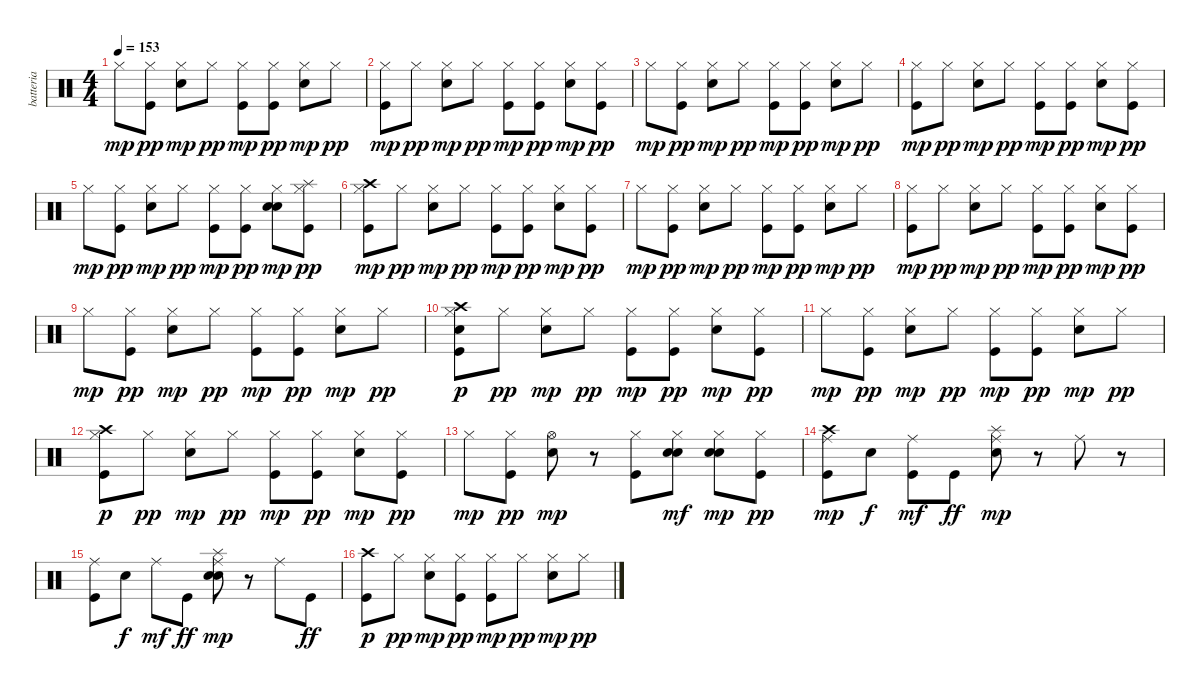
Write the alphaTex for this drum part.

\track ("batteria" "batteria") {instrument percussion}
\staff {score}
\articulation defaults
\ts (4 4)
\tempo 153
\clef neutral
\ks c "Hi-Hat (closed)".8{dy mp}
("Kick (hit)" "Hi-Hat (closed)").8{dy pp} ("Hi-Hat (closed)" "Electric Snare (hit)").8{dy mp} "Hi-Hat (closed)".8{dy pp} ("Kick (hit)" "Hi-Hat (closed)").8{dy mp} ("Kick (hit)" "Hi-Hat (closed)").8{dy pp} ("Hi-Hat (closed)" "Electric Snare (hit)").8{dy mp} "Hi-Hat (closed)".8{dy pp} |
("Kick (hit)" "Hi-Hat (closed)").8{dy mp} "Hi-Hat (closed)".8{dy pp} ("Hi-Hat (closed)" "Electric Snare (hit)").8{dy mp} "Hi-Hat (closed)".8{dy pp} ("Kick (hit)" "Hi-Hat (closed)").8{dy mp} ("Kick (hit)" "Hi-Hat (closed)").8{dy pp} ("Hi-Hat (closed)" "Electric Snare (hit)").8{dy mp} ("Kick (hit)" "Hi-Hat (closed)").8{dy pp} |
"Hi-Hat (closed)".8{dy mp} ("Kick (hit)" "Hi-Hat (closed)").8{dy pp} ("Hi-Hat (closed)" "Electric Snare (hit)").8{dy mp} "Hi-Hat (closed)".8{dy pp} ("Kick (hit)" "Hi-Hat (closed)").8{dy mp} ("Kick (hit)" "Hi-Hat (closed)").8{dy pp} ("Hi-Hat (closed)" "Electric Snare (hit)").8{dy mp} "Hi-Hat (closed)".8{dy pp} |
("Kick (hit)" "Hi-Hat (closed)").8{dy mp} "Hi-Hat (closed)".8{dy pp} ("Hi-Hat (closed)" "Electric Snare (hit)").8{dy mp} "Hi-Hat (closed)".8{dy pp} ("Kick (hit)" "Hi-Hat (closed)").8{dy mp} ("Kick (hit)" "Hi-Hat (closed)").8{dy pp} ("Hi-Hat (closed)" "Electric Snare (hit)").8{dy mp} ("Kick (hit)" "Hi-Hat (closed)").8{dy pp} |
"Hi-Hat (closed)".8{dy mp} ("Kick (hit)" "Hi-Hat (closed)").8{dy pp} ("Hi-Hat (closed)" "Electric Snare (hit)").8{dy mp} "Hi-Hat (closed)".8{dy pp} ("Kick (hit)" "Hi-Hat (closed)").8{dy mp} ("Kick (hit)" "Hi-Hat (closed)").8{dy pp} ("Electric Snare (hit)" "Hi-Hat (closed)" "Electric Snare (hit)").8{dy mp} ("Kick (hit)" "Hi-Hat (closed)" "Splash (hit)").8{dy pp} |
("Kick (hit)" "Hi-Hat (closed)" "Crash high (hit)").8{dy mp} "Hi-Hat (closed)".8{dy pp} ("Hi-Hat (closed)" "Electric Snare (hit)").8{dy mp} "Hi-Hat (closed)".8{dy pp} ("Kick (hit)" "Hi-Hat (closed)").8{dy mp} ("Kick (hit)" "Hi-Hat (closed)").8{dy pp} ("Hi-Hat (closed)" "Electric Snare (hit)").8{dy mp} ("Kick (hit)" "Hi-Hat (closed)").8{dy pp} |
"Hi-Hat (closed)".8{dy mp} ("Kick (hit)" "Hi-Hat (closed)").8{dy pp} ("Hi-Hat (closed)" "Electric Snare (hit)").8{dy mp} "Hi-Hat (closed)".8{dy pp} ("Kick (hit)" "Hi-Hat (closed)").8{dy mp} ("Kick (hit)" "Hi-Hat (closed)").8{dy pp} ("Hi-Hat (closed)" "Electric Snare (hit)").8{dy mp} "Hi-Hat (closed)".8{dy pp} |
("Kick (hit)" "Hi-Hat (closed)").8{dy mp} "Hi-Hat (closed)".8{dy pp} ("Hi-Hat (closed)" "Electric Snare (hit)").8{dy mp} "Hi-Hat (closed)".8{dy pp} ("Kick (hit)" "Hi-Hat (closed)").8{dy mp} ("Kick (hit)" "Hi-Hat (closed)").8{dy pp} ("Hi-Hat (closed)" "Electric Snare (hit)").8{dy mp} ("Kick (hit)" "Hi-Hat (closed)").8{dy pp} |
"Hi-Hat (closed)".8{dy mp} ("Kick (hit)" "Hi-Hat (closed)").8{dy pp} ("Hi-Hat (closed)" "Electric Snare (hit)").8{dy mp} "Hi-Hat (closed)".8{dy pp} ("Kick (hit)" "Hi-Hat (closed)").8{dy mp} ("Kick (hit)" "Hi-Hat (closed)").8{dy pp} ("Hi-Hat (closed)" "Electric Snare (hit)").8{dy mp} "Hi-Hat (closed)".8{dy pp} |
("Electric Snare (hit)" "Kick (hit)" "Hi-Hat (closed)" "Crash high (hit)").8{dy p} "Hi-Hat (closed)".8{dy pp} ("Hi-Hat (closed)" "Electric Snare (hit)").8{dy mp} "Hi-Hat (closed)".8{dy pp} ("Kick (hit)" "Hi-Hat (closed)").8{dy mp} ("Kick (hit)" "Hi-Hat (closed)").8{dy pp} ("Hi-Hat (closed)" "Electric Snare (hit)").8{dy mp} ("Kick (hit)" "Hi-Hat (closed)").8{dy pp} |
"Hi-Hat (closed)".8{dy mp} ("Kick (hit)" "Hi-Hat (closed)").8{dy pp} ("Hi-Hat (closed)" "Electric Snare (hit)").8{dy mp} "Hi-Hat (closed)".8{dy pp} ("Kick (hit)" "Hi-Hat (closed)").8{dy mp} ("Kick (hit)" "Hi-Hat (closed)").8{dy pp} ("Hi-Hat (closed)" "Electric Snare (hit)").8{dy mp} "Hi-Hat (closed)".8{dy pp} |
("Kick (hit)" "Hi-Hat (closed)" "Crash high (hit)").8{dy p} "Hi-Hat (closed)".8{dy pp} ("Hi-Hat (closed)" "Electric Snare (hit)").8{dy mp} "Hi-Hat (closed)".8{dy pp} ("Kick (hit)" "Hi-Hat (closed)").8{dy mp} ("Kick (hit)" "Hi-Hat (closed)").8{dy pp} ("Hi-Hat (closed)" "Electric Snare (hit)").8{dy mp} ("Kick (hit)" "Hi-Hat (closed)").8{dy pp} |
"Hi-Hat (closed)".8{dy mp} ("Kick (hit)" "Hi-Hat (closed)").8{dy pp} ("Hi-Hat (open)" "Electric Snare (hit)").8{dy mp} r.8 ("Kick (hit)" "Hi-Hat (closed)").8 ("Electric Snare (hit)" "Hi-Hat (closed)" "Electric Snare (hit)").8{dy mf} ("Electric Snare (hit)" "Hi-Hat (closed)" "Electric Snare (hit)").8{dy mp} ("Kick (hit)" "Hi-Hat (closed)").8{dy pp} |
("Kick (hit)" "Crash high (hit)" "Ride (middle)").8{dy mp} "Electric Snare (hit)".8{dy f} ("Kick (hit)" "Ride (middle)").8{dy mf} "Kick (hit)".8{dy ff} ("Ride (middle)" "Splash (hit)" "Electric Snare (hit)").8{dy mp} r.8 "Ride (middle)".8 r.8 |
("Kick (hit)" "Ride (middle)").8 "Electric Snare (hit)".8{dy f} "Ride (middle)".8{dy mf} "Kick (hit)".8{dy ff} ("Electric Snare (hit)" "Ride (middle)" "Splash (hit)" "Electric Snare (hit)").8{dy mp} r.8 "Ride (middle)".8 "Kick (hit)".8{dy ff} |
("Kick (hit)" "Crash high (hit)").8{dy p} "Hi-Hat (closed)".8{dy pp} ("Hi-Hat (closed)" "Electric Snare (hit)").8{dy mp} ("Kick (hit)" "Hi-Hat (closed)").8{dy pp} ("Kick (hit)" "Hi-Hat (closed)").8{dy mp} "Hi-Hat (closed)".8{dy pp} ("Hi-Hat (closed)" "Electric Snare (hit)").8{dy mp} "Hi-Hat (closed)".8{dy pp}
